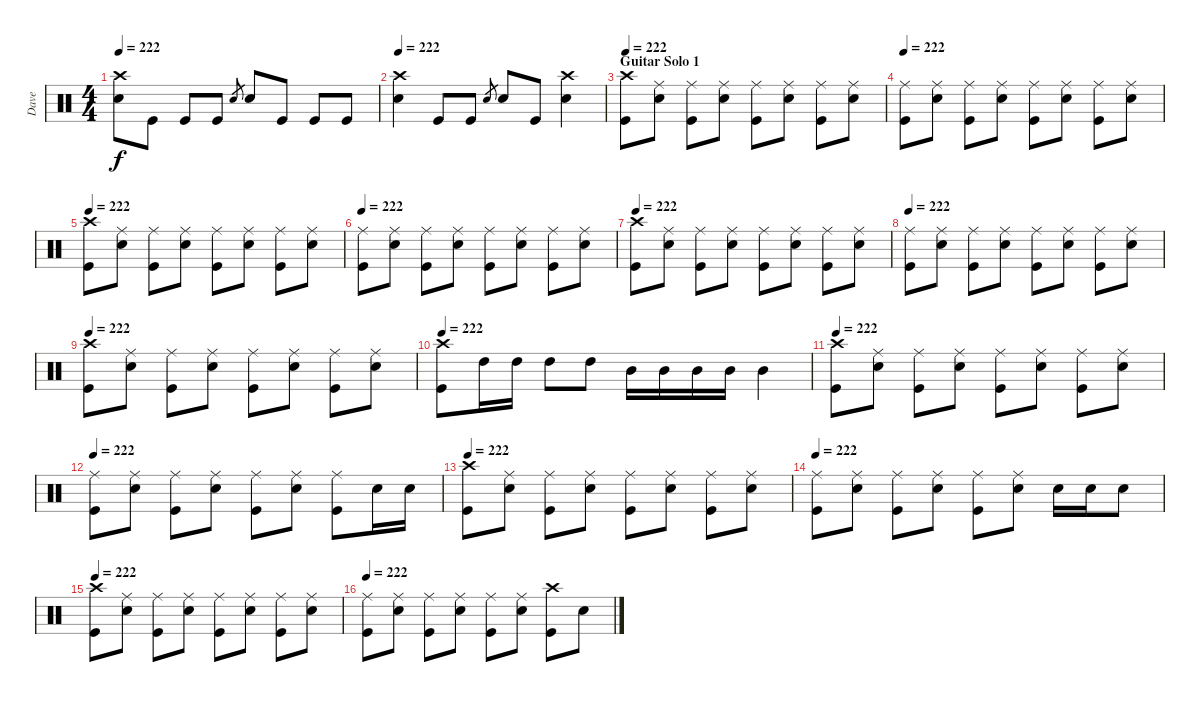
\track ("Dave" "Dave") {instrument percussion}
\staff {score}
\articulation defaults
\ts (4 4)
\tempo 222
\clef neutral
\ks c
("Crash high (hit)" "Snare (hit) 2").8{dy f} "Kick (hit)".8 "Kick (hit)".8 "Kick (hit)".8 "Snare (hit) 2".8{gr} "Snare (hit) 2".8 "Kick (hit)".8 "Kick (hit)".8 "Kick (hit)".8 |
\tempo 222
("Crash high (hit)" "Snare (hit) 2").4 "Kick (hit)".8 "Kick (hit)".8 "Snare (hit) 2".8{gr} "Snare (hit) 2".8 "Kick (hit)".8 ("Crash high (hit)" "Snare (hit) 2").4 |
\section ("" "Guitar Solo 1")
\tempo 222
("Crash high (hit)" "Kick (hit)").8 ("Ride (middle)" "Snare (hit) 2").8 ("Ride (middle)" "Kick (hit)").8 ("Ride (middle)" "Snare (hit) 2").8 ("Ride (middle)" "Kick (hit)").8 ("Ride (middle)" "Snare (hit) 2").8 ("Ride (middle)" "Kick (hit)").8 ("Ride (middle)" "Snare (hit) 2").8 |
\tempo 222
("Ride (middle)" "Kick (hit)").8 ("Ride (middle)" "Snare (hit) 2").8 ("Ride (middle)" "Kick (hit)").8 ("Ride (middle)" "Snare (hit) 2").8 ("Ride (middle)" "Kick (hit)").8 ("Ride (middle)" "Snare (hit) 2").8 ("Ride (middle)" "Kick (hit)").8 ("Ride (middle)" "Snare (hit) 2").8 |
\tempo 222
("Crash high (hit)" "Kick (hit)").8 ("Ride (middle)" "Snare (hit) 2").8 ("Ride (middle)" "Kick (hit)").8 ("Ride (middle)" "Snare (hit) 2").8 ("Ride (middle)" "Kick (hit)").8 ("Ride (middle)" "Snare (hit) 2").8 ("Ride (middle)" "Kick (hit)").8 ("Ride (middle)" "Snare (hit) 2").8 |
\tempo 222
("Ride (middle)" "Kick (hit)").8 ("Ride (middle)" "Snare (hit) 2").8 ("Ride (middle)" "Kick (hit)").8 ("Ride (middle)" "Snare (hit) 2").8 ("Ride (middle)" "Kick (hit)").8 ("Ride (middle)" "Snare (hit) 2").8 ("Ride (middle)" "Kick (hit)").8 ("Ride (middle)" "Snare (hit) 2").8 |
\tempo 222
("Crash high (hit)" "Kick (hit)").8 ("Ride (middle)" "Snare (hit) 2").8 ("Ride (middle)" "Kick (hit)").8 ("Ride (middle)" "Snare (hit) 2").8 ("Ride (middle)" "Kick (hit)").8 ("Ride (middle)" "Snare (hit) 2").8 ("Ride (middle)" "Kick (hit)").8 ("Ride (middle)" "Snare (hit) 2").8 |
\tempo 222
("Ride (middle)" "Kick (hit)").8 ("Ride (middle)" "Snare (hit) 2").8 ("Ride (middle)" "Kick (hit)").8 ("Ride (middle)" "Snare (hit) 2").8 ("Ride (middle)" "Kick (hit)").8 ("Ride (middle)" "Snare (hit) 2").8 ("Ride (middle)" "Kick (hit)").8 ("Ride (middle)" "Snare (hit) 2").8 |
\tempo 222
("Crash high (hit)" "Kick (hit)").8 ("Ride (middle)" "Snare (hit) 2").8 ("Ride (middle)" "Kick (hit)").8 ("Ride (middle)" "Snare (hit) 2").8 ("Ride (middle)" "Kick (hit)").8 ("Ride (middle)" "Snare (hit) 2").8 ("Ride (middle)" "Kick (hit)").8 ("Ride (middle)" "Snare (hit) 2").8 |
\tempo 222
("Crash high (hit)" "Kick (hit)").8 "High Tom (hit)".16 "High Tom (hit)".16 "High Tom (hit)".8 "High Tom (hit)".8 "Mid Tom (hit)".16 "Mid Tom (hit)".16 "Mid Tom (hit)".16 "Mid Tom (hit)".16 "Mid Tom (hit)".4 |
\tempo 222
("Crash high (hit)" "Kick (hit)").8 ("Ride (middle)" "Snare (hit) 2").8 ("Ride (middle)" "Kick (hit)").8 ("Ride (middle)" "Snare (hit) 2").8 ("Ride (middle)" "Kick (hit)").8 ("Ride (middle)" "Snare (hit) 2").8 ("Ride (middle)" "Kick (hit)").8 ("Ride (middle)" "Snare (hit) 2").8 |
\tempo 222
("Ride (middle)" "Kick (hit)").8 ("Ride (middle)" "Snare (hit) 2").8 ("Ride (middle)" "Kick (hit)").8 ("Ride (middle)" "Snare (hit) 2").8 ("Ride (middle)" "Kick (hit)").8 ("Ride (middle)" "Snare (hit) 2").8 ("Ride (middle)" "Kick (hit)").8 "Snare (hit) 2".16 "Snare (hit) 2".16 |
\tempo 222
("Crash high (hit)" "Kick (hit)").8 ("Ride (middle)" "Snare (hit) 2").8 ("Ride (middle)" "Kick (hit)").8 ("Ride (middle)" "Snare (hit) 2").8 ("Ride (middle)" "Kick (hit)").8 ("Ride (middle)" "Snare (hit) 2").8 ("Ride (middle)" "Kick (hit)").8 ("Ride (middle)" "Snare (hit) 2").8 |
\tempo 222
("Ride (middle)" "Kick (hit)").8 ("Ride (middle)" "Snare (hit) 2").8 ("Ride (middle)" "Kick (hit)").8 ("Ride (middle)" "Snare (hit) 2").8 ("Ride (middle)" "Kick (hit)").8 ("Ride (middle)" "Snare (hit) 2").8 "Snare (hit) 2".16 "Snare (hit) 2".16 "Snare (hit) 2".8 |
\tempo 222
("Crash high (hit)" "Kick (hit)").8 ("Ride (middle)" "Snare (hit) 2").8 ("Ride (middle)" "Kick (hit)").8 ("Ride (middle)" "Snare (hit) 2").8 ("Ride (middle)" "Kick (hit)").8 ("Ride (middle)" "Snare (hit) 2").8 ("Ride (middle)" "Kick (hit)").8 ("Ride (middle)" "Snare (hit) 2").8 |
\tempo 222
("Ride (middle)" "Kick (hit)").8 ("Ride (middle)" "Snare (hit) 2").8 ("Ride (middle)" "Kick (hit)").8 ("Ride (middle)" "Snare (hit) 2").8 ("Ride (middle)" "Kick (hit)").8 ("Ride (middle)" "Snare (hit) 2").8 ("Crash high (hit)" "Kick (hit)").8 "Snare (hit) 2".8
